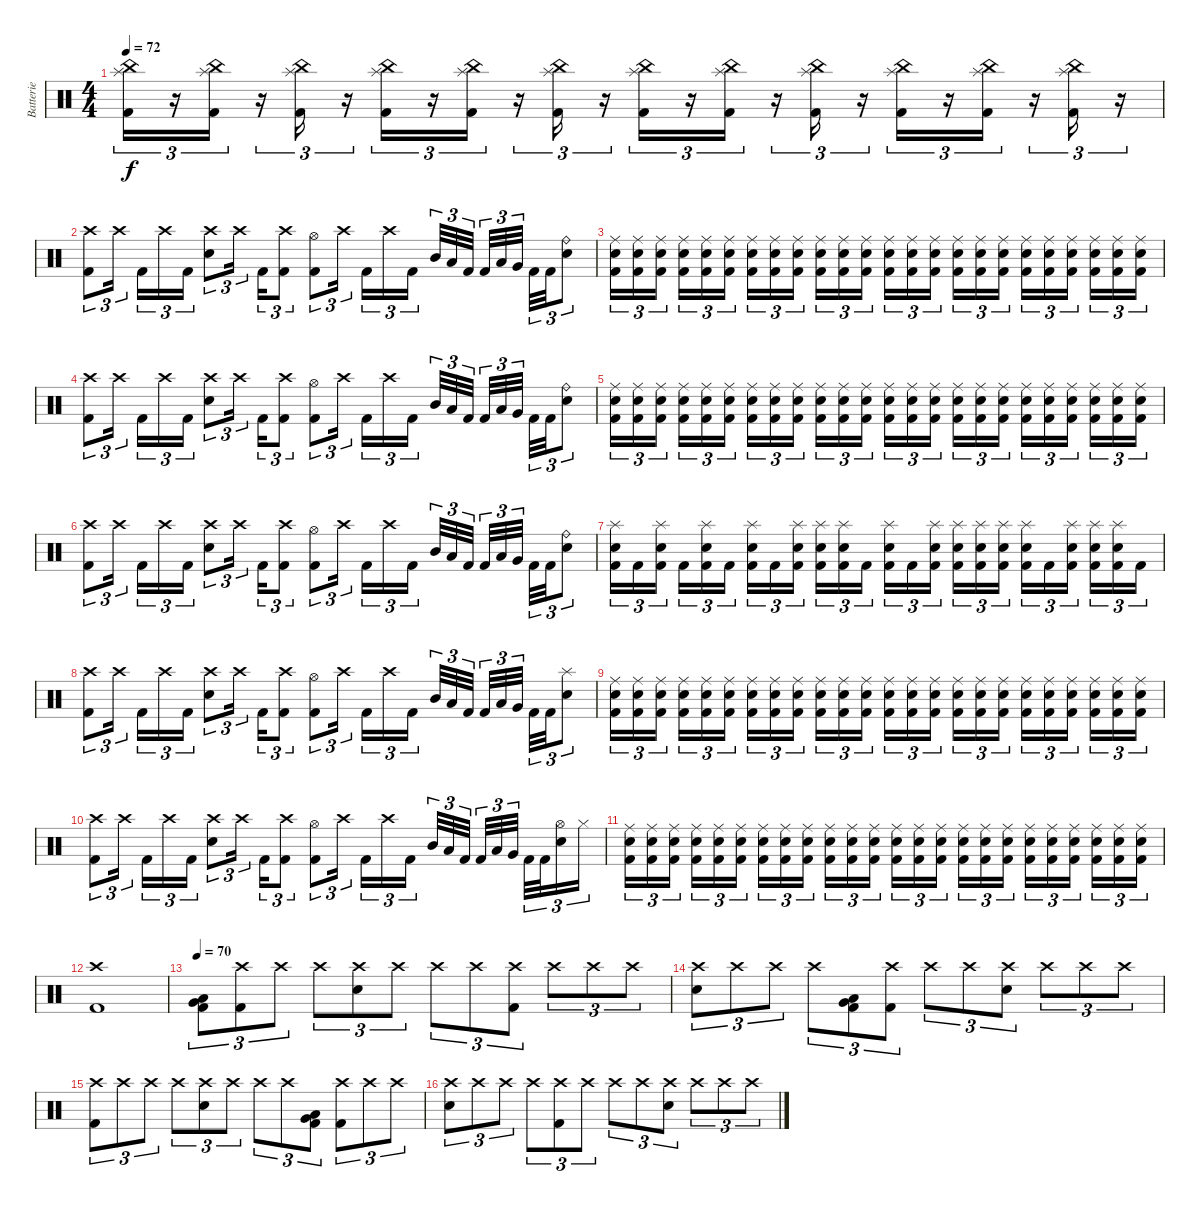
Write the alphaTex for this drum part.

\track ("Batterie" "Batterie") {instrument percussion}
\staff {score}
\articulation defaults
\ts (4 4)
\tempo 72
\clef neutral
\ks c
("China (hit)" "Splash (hit)" "Kick (hit) 2").16{tu (3 2) dy f} r.16{tu (3 2)} ("China (hit)" "Splash (hit)" "Kick (hit) 2").16{tu (3 2)} r.16{tu (3 2)} ("China (hit)" "Splash (hit)" "Kick (hit) 2").16{tu (3 2)} r.16{tu (3 2)} ("China (hit)" "Splash (hit)" "Kick (hit) 2").16{tu (3 2)} r.16{tu (3 2)} ("China (hit)" "Splash (hit)" "Kick (hit) 2").16{tu (3 2)} r.16{tu (3 2)} ("Splash (hit)" "China (hit)" "Kick (hit) 2").16{tu (3 2)} r.16{tu (3 2)} ("Splash (hit)" "China (hit)" "Kick (hit) 2").16{tu (3 2)} r.16{tu (3 2)} ("Splash (hit)" "China (hit)" "Kick (hit) 2").16{tu (3 2)} r.16{tu (3 2)} ("Splash (hit)" "China (hit)" "Kick (hit) 2").16{tu (3 2)} r.16{tu (3 2)} ("China (hit)" "Splash (hit)" "Kick (hit) 2").16{tu (3 2)} r.16{tu (3 2)} ("China (hit)" "Splash (hit)" "Kick (hit) 2").16{tu (3 2)} r.16{tu (3 2)} ("Splash (hit)" "China (hit)" "Kick (hit) 2").16{tu (3 2)} r.16{tu (3 2)} |
("Kick (hit) 2" "Crash high (hit)").8{tu (3 2)} "Crash high (hit)".16{tu (3 2)} "Kick (hit) 2".16{tu (3 2)} "Crash high (hit)".16{tu (3 2)} "Kick (hit) 2".16{tu (3 2)} ("Crash high (hit)" "Electric Snare (hit)").8{tu (3 2)} "Crash high (hit)".16{tu (3 2)} "Kick (hit) 2".16{tu (3 2)} ("Crash high (hit)" "Kick (hit) 2").8{tu (3 2)} ("Hi-Hat (open)" "Kick (hit) 2").8{tu (3 2)} "Crash high (hit)".16{tu (3 2)} "Kick (hit) 2".16{tu (3 2)} "Crash high (hit)".16{tu (3 2)} "Kick (hit) 2".16{tu (3 2)} "Mid Tom (hit)".32{tu (3 2)} "Low Tom (hit)".32{tu (3 2)} "Kick (hit) 2".32{tu (3 2)} "Kick (hit) 2".32{tu (3 2)} "Low Tom (hit)".32{tu (3 2)} "Very Low Tom (hit)".32{tu (3 2)} "Kick (hit) 2".32{tu (3 2)} "Kick (hit) 2".32{tu (3 2)} ("Ride (bell)" "Electric Snare (hit)").8{tu (3 2)} |
("Kick (hit) 2" "Ride (middle)" "Electric Snare (hit)").16{tu (3 2)} ("Kick (hit) 2" "Ride (middle)" "Electric Snare (hit)").16{tu (3 2)} ("Kick (hit) 2" "Ride (middle)" "Electric Snare (hit)").16{tu (3 2)} ("Kick (hit) 2" "Ride (middle)" "Electric Snare (hit)").16{tu (3 2)} ("Kick (hit) 2" "Ride (middle)" "Electric Snare (hit)").16{tu (3 2)} ("Kick (hit) 2" "Ride (middle)" "Electric Snare (hit)").16{tu (3 2)} ("Kick (hit) 2" "Ride (middle)" "Electric Snare (hit)").16{tu (3 2)} ("Kick (hit) 2" "Ride (middle)" "Electric Snare (hit)").16{tu (3 2)} ("Kick (hit) 2" "Ride (middle)" "Electric Snare (hit)").16{tu (3 2)} ("Kick (hit) 2" "Ride (middle)" "Electric Snare (hit)").16{tu (3 2)} ("Kick (hit) 2" "Ride (middle)" "Electric Snare (hit)").16{tu (3 2)} ("Kick (hit) 2" "Ride (middle)" "Electric Snare (hit)").16{tu (3 2)} ("Kick (hit) 2" "Ride (middle)" "Electric Snare (hit)").16{tu (3 2)} ("Kick (hit) 2" "Ride (middle)" "Electric Snare (hit)").16{tu (3 2)} ("Kick (hit) 2" "Ride (middle)" "Electric Snare (hit)").16{tu (3 2)} ("Kick (hit) 2" "Ride (middle)" "Electric Snare (hit)").16{tu (3 2)} ("Kick (hit) 2" "Ride (middle)" "Electric Snare (hit)").16{tu (3 2)} ("Kick (hit) 2" "Ride (middle)" "Electric Snare (hit)").16{tu (3 2)} ("Electric Snare (hit)" "Ride (middle)" "Kick (hit) 2").16{tu (3 2)} ("Electric Snare (hit)" "Ride (middle)" "Kick (hit) 2").16{tu (3 2)} ("Electric Snare (hit)" "Ride (middle)" "Kick (hit) 2").16{tu (3 2)} ("Electric Snare (hit)" "Ride (middle)" "Kick (hit) 2").16{tu (3 2)} ("Electric Snare (hit)" "Ride (middle)" "Kick (hit) 2").16{tu (3 2)} ("Electric Snare (hit)" "Ride (middle)" "Kick (hit) 2").16{tu (3 2)} |
("Kick (hit) 2" "Crash high (hit)").8{tu (3 2)} "Crash high (hit)".16{tu (3 2)} "Kick (hit) 2".16{tu (3 2)} "Crash high (hit)".16{tu (3 2)} "Kick (hit) 2".16{tu (3 2)} ("Crash high (hit)" "Electric Snare (hit)").8{tu (3 2)} "Crash high (hit)".16{tu (3 2)} "Kick (hit) 2".16{tu (3 2)} ("Crash high (hit)" "Kick (hit) 2").8{tu (3 2)} ("Hi-Hat (open)" "Kick (hit) 2").8{tu (3 2)} "Crash high (hit)".16{tu (3 2)} "Kick (hit) 2".16{tu (3 2)} "Crash high (hit)".16{tu (3 2)} "Kick (hit) 2".16{tu (3 2)} "Mid Tom (hit)".32{tu (3 2)} "Low Tom (hit)".32{tu (3 2)} "Kick (hit) 2".32{tu (3 2)} "Kick (hit) 2".32{tu (3 2)} "Low Tom (hit)".32{tu (3 2)} "Very Low Tom (hit)".32{tu (3 2)} "Kick (hit) 2".32{tu (3 2)} "Kick (hit) 2".32{tu (3 2)} ("Ride (bell)" "Electric Snare (hit)").8{tu (3 2)} |
("Kick (hit) 2" "Ride (middle)" "Electric Snare (hit)").16{tu (3 2)} ("Kick (hit) 2" "Ride (middle)" "Electric Snare (hit)").16{tu (3 2)} ("Kick (hit) 2" "Ride (middle)" "Electric Snare (hit)").16{tu (3 2)} ("Kick (hit) 2" "Ride (middle)" "Electric Snare (hit)").16{tu (3 2)} ("Kick (hit) 2" "Ride (middle)" "Electric Snare (hit)").16{tu (3 2)} ("Kick (hit) 2" "Ride (middle)" "Electric Snare (hit)").16{tu (3 2)} ("Kick (hit) 2" "Ride (middle)" "Electric Snare (hit)").16{tu (3 2)} ("Kick (hit) 2" "Ride (middle)" "Electric Snare (hit)").16{tu (3 2)} ("Kick (hit) 2" "Ride (middle)" "Electric Snare (hit)").16{tu (3 2)} ("Kick (hit) 2" "Ride (middle)" "Electric Snare (hit)").16{tu (3 2)} ("Kick (hit) 2" "Ride (middle)" "Electric Snare (hit)").16{tu (3 2)} ("Kick (hit) 2" "Ride (middle)" "Electric Snare (hit)").16{tu (3 2)} ("Kick (hit) 2" "Ride (middle)" "Electric Snare (hit)").16{tu (3 2)} ("Kick (hit) 2" "Ride (middle)" "Electric Snare (hit)").16{tu (3 2)} ("Kick (hit) 2" "Ride (middle)" "Electric Snare (hit)").16{tu (3 2)} ("Kick (hit) 2" "Ride (middle)" "Electric Snare (hit)").16{tu (3 2)} ("Kick (hit) 2" "Ride (middle)" "Electric Snare (hit)").16{tu (3 2)} ("Kick (hit) 2" "Ride (middle)" "Electric Snare (hit)").16{tu (3 2)} ("Electric Snare (hit)" "Ride (middle)" "Kick (hit) 2").16{tu (3 2)} ("Electric Snare (hit)" "Ride (middle)" "Kick (hit) 2").16{tu (3 2)} ("Electric Snare (hit)" "Ride (middle)" "Kick (hit) 2").16{tu (3 2)} ("Electric Snare (hit)" "Ride (middle)" "Kick (hit) 2").16{tu (3 2)} ("Electric Snare (hit)" "Ride (middle)" "Kick (hit) 2").16{tu (3 2)} ("Electric Snare (hit)" "Ride (middle)" "Kick (hit) 2").16{tu (3 2)} |
("Kick (hit) 2" "Crash high (hit)").8{tu (3 2)} "Crash high (hit)".16{tu (3 2)} "Kick (hit) 2".16{tu (3 2)} "Crash high (hit)".16{tu (3 2)} "Kick (hit) 2".16{tu (3 2)} ("Crash high (hit)" "Electric Snare (hit)").8{tu (3 2)} "Crash high (hit)".16{tu (3 2)} "Kick (hit) 2".16{tu (3 2)} ("Crash high (hit)" "Kick (hit) 2").8{tu (3 2)} ("Hi-Hat (open)" "Kick (hit) 2").8{tu (3 2)} "Crash high (hit)".16{tu (3 2)} "Kick (hit) 2".16{tu (3 2)} "Crash high (hit)".16{tu (3 2)} "Kick (hit) 2".16{tu (3 2)} "Mid Tom (hit)".32{tu (3 2)} "Low Tom (hit)".32{tu (3 2)} "Kick (hit) 2".32{tu (3 2)} "Kick (hit) 2".32{tu (3 2)} "Low Tom (hit)".32{tu (3 2)} "Very Low Tom (hit)".32{tu (3 2)} "Kick (hit) 2".32{tu (3 2)} "Kick (hit) 2".32{tu (3 2)} ("Ride (bell)" "Electric Snare (hit)").8{tu (3 2)} |
("Splash (hit)" "Electric Snare (hit)" "Kick (hit) 2").16{tu (3 2)} "Kick (hit) 2".16{tu (3 2)} ("Splash (hit)" "Electric Snare (hit)" "Kick (hit) 2").16{tu (3 2)} "Kick (hit) 2".16{tu (3 2)} ("Splash (hit)" "Electric Snare (hit)" "Kick (hit) 2").16{tu (3 2)} "Kick (hit) 2".16{tu (3 2)} ("Splash (hit)" "Electric Snare (hit)" "Kick (hit) 2").16{tu (3 2)} "Kick (hit) 2".16{tu (3 2)} ("Splash (hit)" "Electric Snare (hit)" "Kick (hit) 2").16{tu (3 2)} ("Splash (hit)" "Electric Snare (hit)" "Kick (hit) 2").16{tu (3 2)} ("Splash (hit)" "Electric Snare (hit)" "Kick (hit) 2").16{tu (3 2)} "Kick (hit) 2".16{tu (3 2)} ("Splash (hit)" "Electric Snare (hit)" "Kick (hit) 2").16{tu (3 2)} "Kick (hit) 2".16{tu (3 2)} ("Splash (hit)" "Electric Snare (hit)" "Kick (hit) 2").16{tu (3 2)} ("Splash (hit)" "Electric Snare (hit)" "Kick (hit) 2").16{tu (3 2)} ("Splash (hit)" "Electric Snare (hit)" "Kick (hit) 2").16{tu (3 2)} ("Splash (hit)" "Electric Snare (hit)" "Kick (hit) 2").16{tu (3 2)} ("Splash (hit)" "Electric Snare (hit)" "Kick (hit) 2").16{tu (3 2)} "Kick (hit) 2".16{tu (3 2)} ("Splash (hit)" "Electric Snare (hit)" "Kick (hit) 2").16{tu (3 2)} ("Splash (hit)" "Electric Snare (hit)" "Kick (hit) 2").16{tu (3 2)} ("Splash (hit)" "Electric Snare (hit)" "Kick (hit) 2").16{tu (3 2)} "Kick (hit) 2".16{tu (3 2)} |
("Kick (hit) 2" "Crash high (hit)").8{tu (3 2)} "Crash high (hit)".16{tu (3 2)} "Kick (hit) 2".16{tu (3 2)} "Crash high (hit)".16{tu (3 2)} "Kick (hit) 2".16{tu (3 2)} ("Crash high (hit)" "Electric Snare (hit)").8{tu (3 2)} "Crash high (hit)".16{tu (3 2)} "Kick (hit) 2".16{tu (3 2)} ("Crash high (hit)" "Kick (hit) 2").8{tu (3 2)} ("Hi-Hat (open)" "Kick (hit) 2").8{tu (3 2)} "Crash high (hit)".16{tu (3 2)} "Kick (hit) 2".16{tu (3 2)} "Crash high (hit)".16{tu (3 2)} "Kick (hit) 2".16{tu (3 2)} "Mid Tom (hit)".32{tu (3 2)} "Low Tom (hit)".32{tu (3 2)} "Kick (hit) 2".32{tu (3 2)} "Kick (hit) 2".32{tu (3 2)} "Low Tom (hit)".32{tu (3 2)} "Very Low Tom (hit)".32{tu (3 2)} "Kick (hit) 2".32{tu (3 2)} "Kick (hit) 2".32{tu (3 2)} ("Splash (hit)" "Electric Snare (hit)").8{tu (3 2)} |
("Kick (hit) 2" "Ride (middle)" "Electric Snare (hit)").16{tu (3 2)} ("Kick (hit) 2" "Ride (middle)" "Electric Snare (hit)").16{tu (3 2)} ("Kick (hit) 2" "Ride (middle)" "Electric Snare (hit)").16{tu (3 2)} ("Kick (hit) 2" "Ride (middle)" "Electric Snare (hit)").16{tu (3 2)} ("Kick (hit) 2" "Ride (middle)" "Electric Snare (hit)").16{tu (3 2)} ("Kick (hit) 2" "Ride (middle)" "Electric Snare (hit)").16{tu (3 2)} ("Kick (hit) 2" "Ride (middle)" "Electric Snare (hit)").16{tu (3 2)} ("Kick (hit) 2" "Ride (middle)" "Electric Snare (hit)").16{tu (3 2)} ("Kick (hit) 2" "Ride (middle)" "Electric Snare (hit)").16{tu (3 2)} ("Kick (hit) 2" "Ride (middle)" "Electric Snare (hit)").16{tu (3 2)} ("Kick (hit) 2" "Ride (middle)" "Electric Snare (hit)").16{tu (3 2)} ("Kick (hit) 2" "Ride (middle)" "Electric Snare (hit)").16{tu (3 2)} ("Kick (hit) 2" "Ride (middle)" "Electric Snare (hit)").16{tu (3 2)} ("Kick (hit) 2" "Ride (middle)" "Electric Snare (hit)").16{tu (3 2)} ("Kick (hit) 2" "Ride (middle)" "Electric Snare (hit)").16{tu (3 2)} ("Kick (hit) 2" "Ride (middle)" "Electric Snare (hit)").16{tu (3 2)} ("Kick (hit) 2" "Ride (middle)" "Electric Snare (hit)").16{tu (3 2)} ("Kick (hit) 2" "Ride (middle)" "Electric Snare (hit)").16{tu (3 2)} ("Electric Snare (hit)" "Ride (middle)" "Kick (hit) 2").16{tu (3 2)} ("Electric Snare (hit)" "Ride (middle)" "Kick (hit) 2").16{tu (3 2)} ("Electric Snare (hit)" "Ride (middle)" "Kick (hit) 2").16{tu (3 2)} ("Electric Snare (hit)" "Ride (middle)" "Kick (hit) 2").16{tu (3 2)} ("Electric Snare (hit)" "Ride (middle)" "Kick (hit) 2").16{tu (3 2)} ("Electric Snare (hit)" "Ride (middle)" "Kick (hit) 2").16{tu (3 2)} |
("Kick (hit) 2" "Crash high (hit)").8{tu (3 2)} "Crash high (hit)".16{tu (3 2)} "Kick (hit) 2".16{tu (3 2)} "Crash high (hit)".16{tu (3 2)} "Kick (hit) 2".16{tu (3 2)} ("Crash high (hit)" "Electric Snare (hit)").8{tu (3 2)} "Crash high (hit)".16{tu (3 2)} "Kick (hit) 2".16{tu (3 2)} ("Crash high (hit)" "Kick (hit) 2").8{tu (3 2)} ("Hi-Hat (open)" "Kick (hit) 2").8{tu (3 2)} "Crash high (hit)".16{tu (3 2)} "Kick (hit) 2".16{tu (3 2)} "Crash high (hit)".16{tu (3 2)} "Kick (hit) 2".16{tu (3 2)} "Mid Tom (hit)".32{tu (3 2)} "Low Tom (hit)".32{tu (3 2)} "Kick (hit) 2".32{tu (3 2)} "Kick (hit) 2".32{tu (3 2)} "Low Tom (hit)".32{tu (3 2)} "Very Low Tom (hit)".32{tu (3 2)} "Kick (hit) 2".32{tu (3 2)} "Kick (hit) 2".32{tu (3 2)} ("Hi-Hat (open)" "Electric Snare (hit)").16{tu (3 2)} "Hi-Hat (closed)".16{tu (3 2)} |
("Kick (hit) 2" "Ride (middle)" "Electric Snare (hit)").16{tu (3 2)} ("Kick (hit) 2" "Ride (middle)" "Electric Snare (hit)").16{tu (3 2)} ("Kick (hit) 2" "Ride (middle)" "Electric Snare (hit)").16{tu (3 2)} ("Kick (hit) 2" "Ride (middle)" "Electric Snare (hit)").16{tu (3 2)} ("Kick (hit) 2" "Ride (middle)" "Electric Snare (hit)").16{tu (3 2)} ("Kick (hit) 2" "Ride (middle)" "Electric Snare (hit)").16{tu (3 2)} ("Kick (hit) 2" "Ride (middle)" "Electric Snare (hit)").16{tu (3 2)} ("Kick (hit) 2" "Ride (middle)" "Electric Snare (hit)").16{tu (3 2)} ("Kick (hit) 2" "Ride (middle)" "Electric Snare (hit)").16{tu (3 2)} ("Kick (hit) 2" "Ride (middle)" "Electric Snare (hit)").16{tu (3 2)} ("Kick (hit) 2" "Ride (middle)" "Electric Snare (hit)").16{tu (3 2)} ("Kick (hit) 2" "Ride (middle)" "Electric Snare (hit)").16{tu (3 2)} ("Kick (hit) 2" "Ride (middle)" "Electric Snare (hit)").16{tu (3 2)} ("Kick (hit) 2" "Ride (middle)" "Electric Snare (hit)").16{tu (3 2)} ("Kick (hit) 2" "Ride (middle)" "Electric Snare (hit)").16{tu (3 2)} ("Kick (hit) 2" "Ride (middle)" "Electric Snare (hit)").16{tu (3 2)} ("Kick (hit) 2" "Ride (middle)" "Electric Snare (hit)").16{tu (3 2)} ("Kick (hit) 2" "Ride (middle)" "Electric Snare (hit)").16{tu (3 2)} ("Electric Snare (hit)" "Ride (middle)" "Kick (hit) 2").16{tu (3 2)} ("Electric Snare (hit)" "Ride (middle)" "Kick (hit) 2").16{tu (3 2)} ("Electric Snare (hit)" "Ride (middle)" "Kick (hit) 2").16{tu (3 2)} ("Electric Snare (hit)" "Ride (middle)" "Kick (hit) 2").16{tu (3 2)} ("Electric Snare (hit)" "Ride (middle)" "Kick (hit) 2").16{tu (3 2)} ("Electric Snare (hit)" "Ride (middle)" "Kick (hit) 2").16{tu (3 2)} |
("Crash high (hit)" "Kick (hit) 2").1 |
\tempo 70
("Kick (hit) 2" "Very Low Tom (hit)" "Low Tom (hit)").8{tu (3 2)} ("Crash high (hit)" "Kick (hit) 2").8{tu (3 2)} "Crash high (hit)".8{tu (3 2)} "Crash high (hit)".8{tu (3 2)} ("Crash high (hit)" "Electric Snare (hit)").8{tu (3 2)} "Crash high (hit)".8{tu (3 2)} "Crash high (hit)".8{tu (3 2)} "Crash high (hit)".8{tu (3 2)} ("Crash high (hit)" "Kick (hit) 2").8{tu (3 2)} "Crash high (hit)".8{tu (3 2)} "Crash high (hit)".8{tu (3 2)} "Crash high (hit)".8{tu (3 2)} |
("Crash high (hit)" "Electric Snare (hit)").8{tu (3 2)} "Crash high (hit)".8{tu (3 2)} "Crash high (hit)".8{tu (3 2)} "Crash high (hit)".8{tu (3 2)} ("Kick (hit) 2" "Very Low Tom (hit)" "Low Tom (hit)").8{tu (3 2)} ("Crash high (hit)" "Kick (hit) 2").8{tu (3 2)} "Crash high (hit)".8{tu (3 2)} "Crash high (hit)".8{tu (3 2)} ("Crash high (hit)" "Electric Snare (hit)").8{tu (3 2)} "Crash high (hit)".8{tu (3 2)} "Crash high (hit)".8{tu (3 2)} "Crash high (hit)".8{tu (3 2)} |
("Crash high (hit)" "Kick (hit) 2").8{tu (3 2)} "Crash high (hit)".8{tu (3 2)} "Crash high (hit)".8{tu (3 2)} "Crash high (hit)".8{tu (3 2)} ("Crash high (hit)" "Electric Snare (hit)").8{tu (3 2)} "Crash high (hit)".8{tu (3 2)} "Crash high (hit)".8{tu (3 2)} "Crash high (hit)".8{tu (3 2)} ("Kick (hit) 2" "Low Tom (hit)" "Very Low Tom (hit)").8{tu (3 2)} ("Crash high (hit)" "Kick (hit) 2").8{tu (3 2)} "Crash high (hit)".8{tu (3 2)} "Crash high (hit)".8{tu (3 2)} |
("Crash high (hit)" "Electric Snare (hit)").8{tu (3 2)} "Crash high (hit)".8{tu (3 2)} "Crash high (hit)".8{tu (3 2)} "Crash high (hit)".8{tu (3 2)} ("Crash high (hit)" "Kick (hit) 2").8{tu (3 2)} "Crash high (hit)".8{tu (3 2)} "Crash high (hit)".8{tu (3 2)} "Crash high (hit)".8{tu (3 2)} ("Crash high (hit)" "Electric Snare (hit)").8{tu (3 2)} "Crash high (hit)".8{tu (3 2)} "Crash high (hit)".8{tu (3 2)} "Crash high (hit)".8{tu (3 2)}
